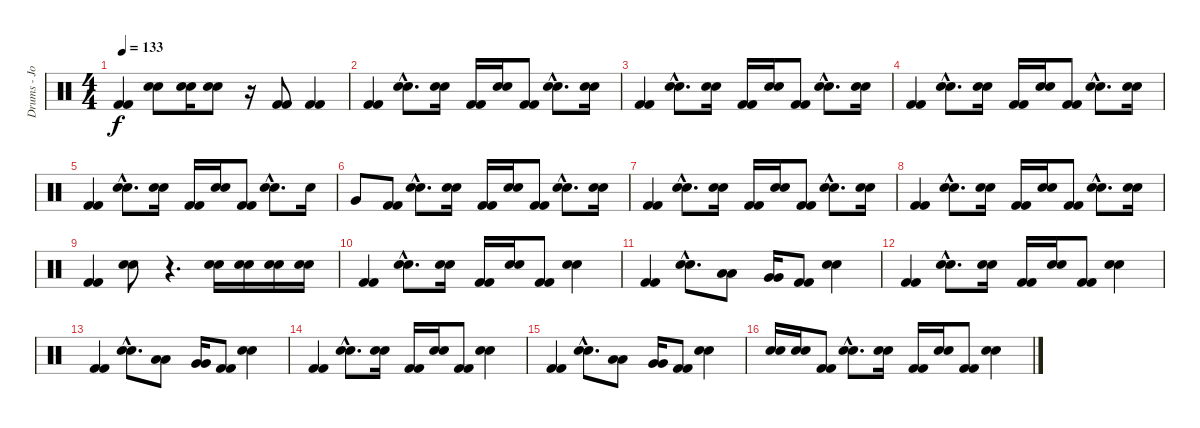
\track ("Drums - Joe Daniels" "Drums - Jo") {instrument percussion}
\staff {score}
\articulation defaults
\ts (4 4)
\tempo 133
\clef neutral
\ks c
("Kick (hit) 2" "Kick (hit) 2").4{dy f} ("Snare (hit) 2" "Snare (hit) 2").8 ("Snare (hit) 2" "Snare (hit) 2").16 ("Snare (hit) 2" "Snare (hit) 2").8 r.16 ("Kick (hit) 2" "Kick (hit) 2").8 ("Kick (hit) 2" "Kick (hit) 2").4 |
("Kick (hit) 2" "Kick (hit) 2").4 ("Snare (hit) 2"{hac} "Snare (hit) 2"{hac}).8{d} ("Snare (hit) 2" "Snare (hit) 2").16 ("Kick (hit) 2" "Kick (hit) 2").16 ("Snare (hit) 2" "Snare (hit) 2").16 ("Kick (hit) 2" "Kick (hit) 2").8 ("Snare (hit) 2"{hac} "Snare (hit) 2"{hac}).8{d} ("Snare (hit) 2" "Snare (hit) 2").16 |
("Kick (hit) 2" "Kick (hit) 2").4 ("Snare (hit) 2"{hac} "Snare (hit) 2"{hac}).8{d} ("Snare (hit) 2" "Snare (hit) 2").16 ("Kick (hit) 2" "Kick (hit) 2").16 ("Snare (hit) 2" "Snare (hit) 2").16 ("Kick (hit) 2" "Kick (hit) 2").8 ("Snare (hit) 2"{hac} "Snare (hit) 2"{hac}).8{d} ("Snare (hit) 2" "Snare (hit) 2").16 |
("Kick (hit) 2" "Kick (hit) 2").4 ("Snare (hit) 2"{hac} "Snare (hit) 2"{hac}).8{d} ("Snare (hit) 2" "Snare (hit) 2").16 ("Kick (hit) 2" "Kick (hit) 2").16 ("Snare (hit) 2" "Snare (hit) 2").16 ("Kick (hit) 2" "Kick (hit) 2").8 ("Snare (hit) 2"{hac} "Snare (hit) 2"{hac}).8{d} ("Snare (hit) 2" "Snare (hit) 2").16 |
("Kick (hit) 2" "Kick (hit) 2").4 ("Snare (hit) 2"{hac} "Snare (hit) 2"{hac}).8{d} ("Snare (hit) 2" "Snare (hit) 2").16 ("Kick (hit) 2" "Kick (hit) 2").16 ("Snare (hit) 2" "Snare (hit) 2").16 ("Kick (hit) 2" "Kick (hit) 2").8 ("Snare (hit) 2"{hac} "Snare (hit) 2"{hac}).8{d} "Snare (hit) 2".16 |
"Very Low Tom (hit)".8 ("Kick (hit) 2" "Kick (hit) 2").8 ("Snare (hit) 2"{hac} "Snare (hit) 2"{hac}).8{d} ("Snare (hit) 2" "Snare (hit) 2").16 ("Kick (hit) 2" "Kick (hit) 2").16 ("Snare (hit) 2" "Snare (hit) 2").16 ("Kick (hit) 2" "Kick (hit) 2").8 ("Snare (hit) 2"{hac} "Snare (hit) 2"{hac}).8{d} ("Snare (hit) 2" "Snare (hit) 2").16 |
("Kick (hit) 2" "Kick (hit) 2").4 ("Snare (hit) 2"{hac} "Snare (hit) 2"{hac}).8{d} ("Snare (hit) 2" "Snare (hit) 2").16 ("Kick (hit) 2" "Kick (hit) 2").16 ("Snare (hit) 2" "Snare (hit) 2").16 ("Kick (hit) 2" "Kick (hit) 2").8 ("Snare (hit) 2"{hac} "Snare (hit) 2"{hac}).8{d} ("Snare (hit) 2" "Snare (hit) 2").16 |
("Kick (hit) 2" "Kick (hit) 2").4 ("Snare (hit) 2"{hac} "Snare (hit) 2"{hac}).8{d} ("Snare (hit) 2" "Snare (hit) 2").16 ("Kick (hit) 2" "Kick (hit) 2").16 ("Snare (hit) 2" "Snare (hit) 2").16 ("Kick (hit) 2" "Kick (hit) 2").8 ("Snare (hit) 2"{hac} "Snare (hit) 2"{hac}).8{d} ("Snare (hit) 2" "Snare (hit) 2").16 |
("Kick (hit) 2" "Kick (hit) 2").4 ("Snare (hit) 2" "Snare (hit) 2").8 r.4{d} ("Snare (hit) 2" "Snare (hit) 2").16 ("Snare (hit) 2" "Snare (hit) 2").16 ("Snare (hit) 2" "Snare (hit) 2").16 ("Snare (hit) 2" "Snare (hit) 2").16 |
("Kick (hit) 2" "Kick (hit) 2").4 ("Snare (hit) 2"{hac} "Snare (hit) 2"{hac}).8{d} ("Snare (hit) 2" "Snare (hit) 2").16 ("Kick (hit) 2" "Kick (hit) 2").16 ("Snare (hit) 2" "Snare (hit) 2").16 ("Kick (hit) 2" "Kick (hit) 2").8 ("Snare (hit) 2" "Snare (hit) 2").4 |
("Kick (hit) 2" "Kick (hit) 2").4 ("Snare (hit) 2"{hac} "Snare (hit) 2"{hac}).8{d} ("Low Tom (hit)" "Low Tom (hit)").8 ("Very Low Tom (hit)" "Very Low Tom (hit)").16 ("Kick (hit) 2" "Kick (hit) 2").8 ("Snare (hit) 2" "Snare (hit) 2").4 |
("Kick (hit) 2" "Kick (hit) 2").4 ("Snare (hit) 2"{hac} "Snare (hit) 2"{hac}).8{d} ("Snare (hit) 2" "Snare (hit) 2").16 ("Kick (hit) 2" "Kick (hit) 2").16 ("Snare (hit) 2" "Snare (hit) 2").16 ("Kick (hit) 2" "Kick (hit) 2").8 ("Snare (hit) 2" "Snare (hit) 2").4 |
("Kick (hit) 2" "Kick (hit) 2").4 ("Snare (hit) 2"{hac} "Snare (hit) 2"{hac}).8{d} ("Low Tom (hit)" "Low Tom (hit)").8 ("Very Low Tom (hit)" "Very Low Tom (hit)").16 ("Kick (hit) 2" "Kick (hit) 2").8 ("Snare (hit) 2" "Snare (hit) 2").4 |
("Kick (hit) 2" "Kick (hit) 2").4 ("Snare (hit) 2"{hac} "Snare (hit) 2"{hac}).8{d} ("Snare (hit) 2" "Snare (hit) 2").16 ("Kick (hit) 2" "Kick (hit) 2").16 ("Snare (hit) 2" "Snare (hit) 2").16 ("Kick (hit) 2" "Kick (hit) 2").8 ("Snare (hit) 2" "Snare (hit) 2").4 |
("Kick (hit) 2" "Kick (hit) 2").4 ("Snare (hit) 2"{hac} "Snare (hit) 2"{hac}).8{d} ("Low Tom (hit)" "Low Tom (hit)").8 ("Very Low Tom (hit)" "Very Low Tom (hit)").16 ("Kick (hit) 2" "Kick (hit) 2").8 ("Snare (hit) 2" "Snare (hit) 2").4 |
("Snare (hit) 2" "Snare (hit) 2").16 ("Snare (hit) 2" "Snare (hit) 2").16 ("Kick (hit) 2" "Kick (hit) 2").8 ("Snare (hit) 2"{hac} "Snare (hit) 2"{hac}).8{d} ("Snare (hit) 2" "Snare (hit) 2").16 ("Kick (hit) 2" "Kick (hit) 2").16 ("Snare (hit) 2" "Snare (hit) 2").16 ("Kick (hit) 2" "Kick (hit) 2").8 ("Snare (hit) 2" "Snare (hit) 2").4
